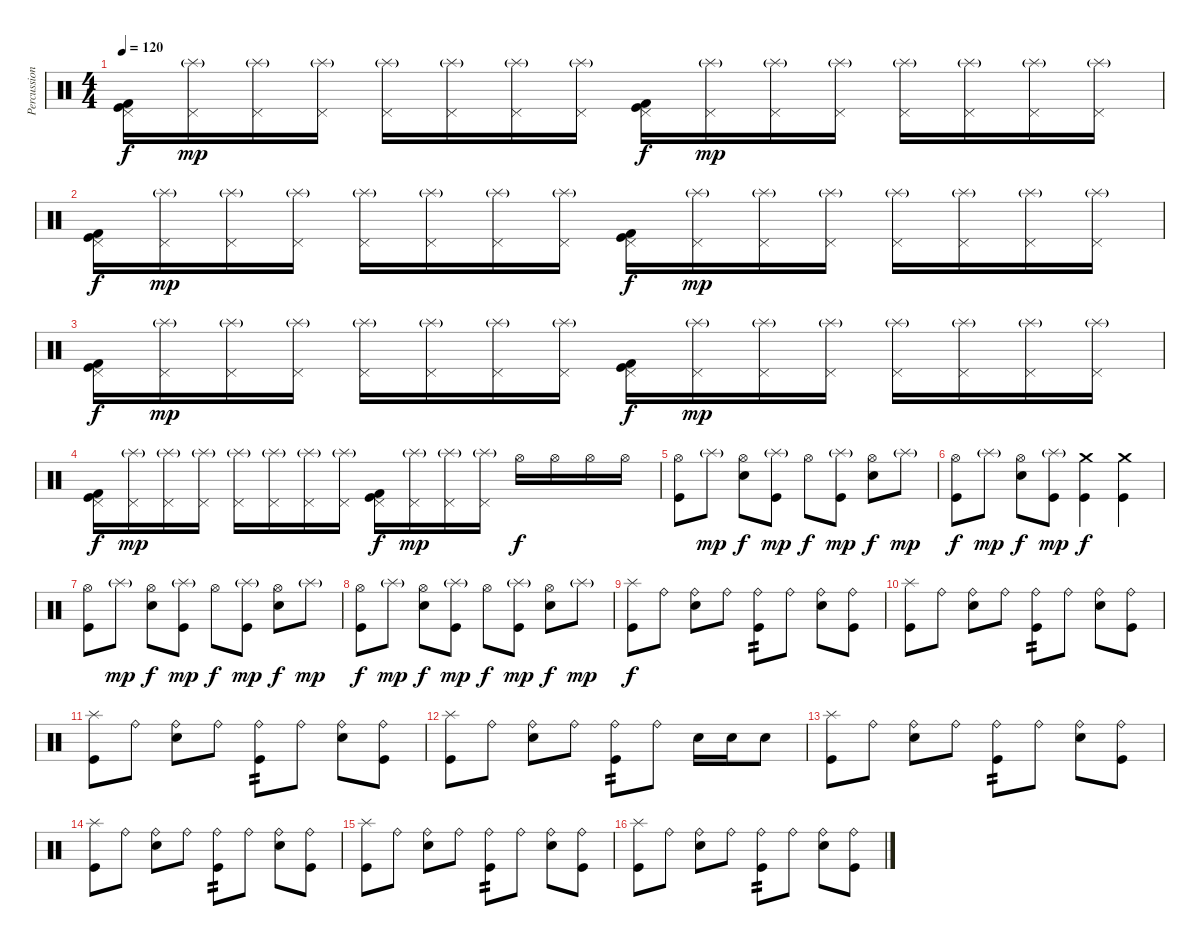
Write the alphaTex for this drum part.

\track ("Percussion" "Percussion") {instrument percussion}
\staff {score}
\articulation defaults
\ts (4 4)
\tempo 120
\clef neutral
\ks c
("Kick (hit) 2" "Pedal Hi-Hat (hit)" "Kick (hit)").16{dy f} ("Pedal Hi-Hat (hit)" "Splash (hit)"{g}).16{dy mp} ("Pedal Hi-Hat (hit)" "Splash (hit)"{g}).16 ("Pedal Hi-Hat (hit)" "Splash (hit)"{g}).16 ("Pedal Hi-Hat (hit)" "Splash (hit)"{g}).16 ("Pedal Hi-Hat (hit)" "Splash (hit)"{g}).16 ("Pedal Hi-Hat (hit)" "Splash (hit)"{g}).16 ("Pedal Hi-Hat (hit)" "Splash (hit)"{g}).16 ("Kick (hit) 2" "Pedal Hi-Hat (hit)" "Kick (hit)").16{dy f} ("Pedal Hi-Hat (hit)" "Splash (hit)"{g}).16{dy mp} ("Pedal Hi-Hat (hit)" "Splash (hit)"{g}).16 ("Pedal Hi-Hat (hit)" "Splash (hit)"{g}).16 ("Pedal Hi-Hat (hit)" "Splash (hit)"{g}).16 ("Pedal Hi-Hat (hit)" "Splash (hit)"{g}).16 ("Pedal Hi-Hat (hit)" "Splash (hit)"{g}).16 ("Pedal Hi-Hat (hit)" "Splash (hit)"{g}).16 |
("Kick (hit) 2" "Pedal Hi-Hat (hit)" "Kick (hit)").16{dy f} ("Pedal Hi-Hat (hit)" "Splash (hit)"{g}).16{dy mp} ("Pedal Hi-Hat (hit)" "Splash (hit)"{g}).16 ("Pedal Hi-Hat (hit)" "Splash (hit)"{g}).16 ("Pedal Hi-Hat (hit)" "Splash (hit)"{g}).16 ("Pedal Hi-Hat (hit)" "Splash (hit)"{g}).16 ("Pedal Hi-Hat (hit)" "Splash (hit)"{g}).16 ("Pedal Hi-Hat (hit)" "Splash (hit)"{g}).16 ("Kick (hit) 2" "Pedal Hi-Hat (hit)" "Kick (hit)").16{dy f} ("Pedal Hi-Hat (hit)" "Splash (hit)"{g}).16{dy mp} ("Pedal Hi-Hat (hit)" "Splash (hit)"{g}).16 ("Pedal Hi-Hat (hit)" "Splash (hit)"{g}).16 ("Pedal Hi-Hat (hit)" "Splash (hit)"{g}).16 ("Pedal Hi-Hat (hit)" "Splash (hit)"{g}).16 ("Pedal Hi-Hat (hit)" "Splash (hit)"{g}).16 ("Pedal Hi-Hat (hit)" "Splash (hit)"{g}).16 |
("Kick (hit) 2" "Pedal Hi-Hat (hit)" "Kick (hit)").16{dy f} ("Pedal Hi-Hat (hit)" "Splash (hit)"{g}).16{dy mp} ("Pedal Hi-Hat (hit)" "Splash (hit)"{g}).16 ("Pedal Hi-Hat (hit)" "Splash (hit)"{g}).16 ("Pedal Hi-Hat (hit)" "Splash (hit)"{g}).16 ("Pedal Hi-Hat (hit)" "Splash (hit)"{g}).16 ("Pedal Hi-Hat (hit)" "Splash (hit)"{g}).16 ("Pedal Hi-Hat (hit)" "Splash (hit)"{g}).16 ("Kick (hit) 2" "Pedal Hi-Hat (hit)" "Kick (hit)").16{dy f} ("Pedal Hi-Hat (hit)" "Splash (hit)"{g}).16{dy mp} ("Pedal Hi-Hat (hit)" "Splash (hit)"{g}).16 ("Pedal Hi-Hat (hit)" "Splash (hit)"{g}).16 ("Pedal Hi-Hat (hit)" "Splash (hit)"{g}).16 ("Pedal Hi-Hat (hit)" "Splash (hit)"{g}).16 ("Pedal Hi-Hat (hit)" "Splash (hit)"{g}).16 ("Pedal Hi-Hat (hit)" "Splash (hit)"{g}).16 |
("Kick (hit) 2" "Pedal Hi-Hat (hit)" "Kick (hit)").16{dy f} ("Pedal Hi-Hat (hit)" "Splash (hit)"{g}).16{dy mp} ("Pedal Hi-Hat (hit)" "Splash (hit)"{g}).16 ("Pedal Hi-Hat (hit)" "Splash (hit)"{g}).16 ("Pedal Hi-Hat (hit)" "Splash (hit)"{g}).16 ("Pedal Hi-Hat (hit)" "Splash (hit)"{g}).16 ("Pedal Hi-Hat (hit)" "Splash (hit)"{g}).16 ("Pedal Hi-Hat (hit)" "Splash (hit)"{g}).16 ("Kick (hit) 2" "Pedal Hi-Hat (hit)" "Kick (hit)").16{dy f} ("Pedal Hi-Hat (hit)" "Splash (hit)"{g}).16{dy mp} ("Pedal Hi-Hat (hit)" "Splash (hit)"{g}).16 ("Pedal Hi-Hat (hit)" "Splash (hit)"{g}).16 "Hi-Hat (open)".16{dy f} "Hi-Hat (open)".16 "Hi-Hat (open)".16 "Hi-Hat (open)".16 |
("Hi-Hat (open)" "Kick (hit)").8 "Splash (hit)"{g}.8{dy mp} ("Hi-Hat (open)" "Electric Snare (hit)").8{dy f} ("Splash (hit)"{g} "Kick (hit)").8{dy mp} "Hi-Hat (open)".8{dy f} ("Splash (hit)"{g} "Kick (hit)").8{dy mp} ("Hi-Hat (open)" "Electric Snare (hit)").8{dy f} "Splash (hit)"{g}.8{dy mp} |
("Hi-Hat (open)" "Kick (hit)").8{dy f} "Splash (hit)"{g}.8{dy mp} ("Hi-Hat (open)" "Electric Snare (hit)").8{dy f} ("Splash (hit)"{g} "Kick (hit)").8{dy mp} ("Crash medium (hit)" "Kick (hit)").4{dy f} ("Crash medium (hit)" "Kick (hit)").4 |
("Hi-Hat (open)" "Kick (hit)").8 "Splash (hit)"{g}.8{dy mp} ("Hi-Hat (open)" "Electric Snare (hit)").8{dy f} ("Splash (hit)"{g} "Kick (hit)").8{dy mp} "Hi-Hat (open)".8{dy f} ("Splash (hit)"{g} "Kick (hit)").8{dy mp} ("Hi-Hat (open)" "Electric Snare (hit)").8{dy f} "Splash (hit)"{g}.8{dy mp} |
("Hi-Hat (open)" "Kick (hit)").8{dy f} "Splash (hit)"{g}.8{dy mp} ("Hi-Hat (open)" "Electric Snare (hit)").8{dy f} ("Splash (hit)"{g} "Kick (hit)").8{dy mp} "Hi-Hat (open)".8{dy f} ("Splash (hit)"{g} "Kick (hit)").8{dy mp} ("Hi-Hat (open)" "Electric Snare (hit)").8{dy f} "Splash (hit)"{g}.8{dy mp} |
("Kick (hit)" "Splash (hit)").8{dy f} "Ride (bell)".8 ("Electric Snare (hit)" "Ride (bell)").8 "Ride (bell)".8 ("Kick (hit)" "Ride (bell)").8{tp 2} "Ride (bell)".8 ("Electric Snare (hit)" "Ride (bell)").8 ("Kick (hit)" "Ride (bell)").8 |
("Kick (hit)" "Splash (hit)").8 "Ride (bell)".8 ("Electric Snare (hit)" "Ride (bell)").8 "Ride (bell)".8 ("Kick (hit)" "Ride (bell)").8{tp 2} "Ride (bell)".8 ("Electric Snare (hit)" "Ride (bell)").8 ("Kick (hit)" "Ride (bell)").8 |
("Kick (hit)" "Splash (hit)").8 "Ride (bell)".8 ("Electric Snare (hit)" "Ride (bell)").8 "Ride (bell)".8 ("Kick (hit)" "Ride (bell)").8{tp 2} "Ride (bell)".8 ("Electric Snare (hit)" "Ride (bell)").8 ("Kick (hit)" "Ride (bell)").8 |
("Kick (hit)" "Splash (hit)").8 "Ride (bell)".8 ("Electric Snare (hit)" "Ride (bell)").8 "Ride (bell)".8 ("Kick (hit)" "Ride (bell)").8{tp 2} "Ride (bell)".8 "Electric Snare (hit)".16 "Electric Snare (hit)".16 "Electric Snare (hit)".8 |
("Kick (hit)" "Splash (hit)").8 "Ride (bell)".8 ("Electric Snare (hit)" "Ride (bell)").8 "Ride (bell)".8 ("Kick (hit)" "Ride (bell)").8{tp 2} "Ride (bell)".8 ("Electric Snare (hit)" "Ride (bell)").8 ("Kick (hit)" "Ride (bell)").8 |
("Kick (hit)" "Splash (hit)").8 "Ride (bell)".8 ("Electric Snare (hit)" "Ride (bell)").8 "Ride (bell)".8 ("Kick (hit)" "Ride (bell)").8{tp 2} "Ride (bell)".8 ("Electric Snare (hit)" "Ride (bell)").8 ("Kick (hit)" "Ride (bell)").8 |
("Kick (hit)" "Splash (hit)").8 "Ride (bell)".8 ("Electric Snare (hit)" "Ride (bell)").8 "Ride (bell)".8 ("Kick (hit)" "Ride (bell)").8{tp 2} "Ride (bell)".8 ("Electric Snare (hit)" "Ride (bell)").8 ("Kick (hit)" "Ride (bell)").8 |
("Kick (hit)" "Splash (hit)").8 "Ride (bell)".8 ("Electric Snare (hit)" "Ride (bell)").8 "Ride (bell)".8 ("Kick (hit)" "Ride (bell)").8{tp 2} "Ride (bell)".8 ("Electric Snare (hit)" "Ride (bell)").8 ("Kick (hit)" "Ride (bell)").8
